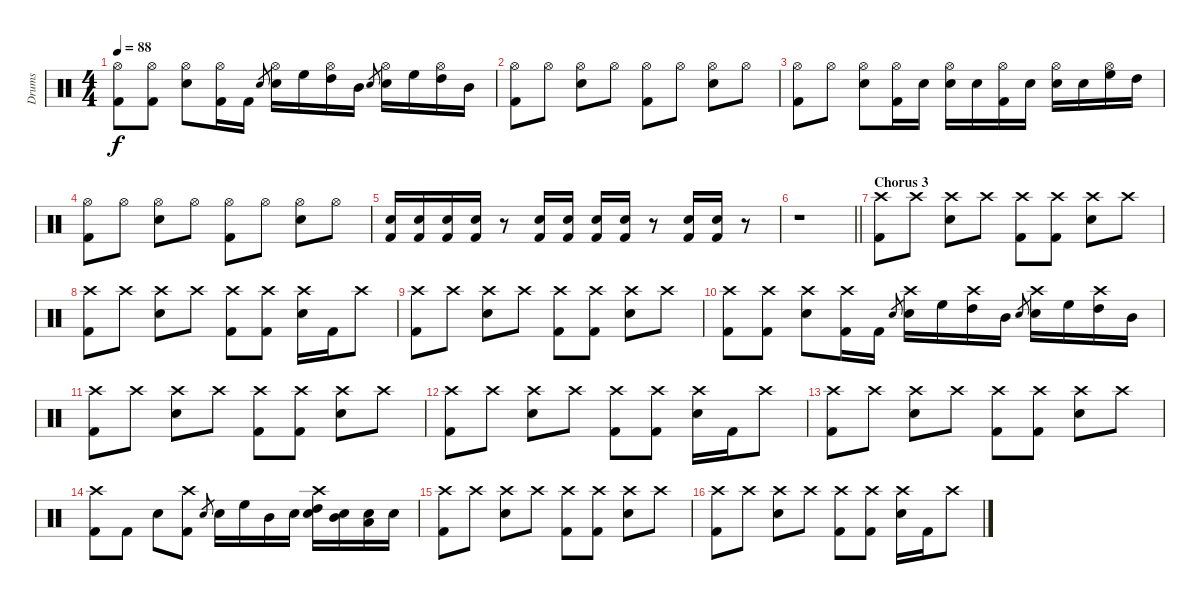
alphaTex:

\track ("Drums" "Drums") {instrument percussion}
\staff {score}
\articulation defaults
\ts (4 4)
\tempo 88
\clef neutral
\ks c
("Hi-Hat (open)" "Kick (hit) 2").8{dy f} ("Hi-Hat (open)" "Kick (hit) 2").8 ("Hi-Hat (open)" "Electric Snare (hit)").8 ("Hi-Hat (open)" "Kick (hit) 2").16 "Kick (hit) 2".16 "Electric Snare (hit)".8{gr} ("Hi-Hat (open)" "Electric Snare (hit)").16 "High Floor Tom (hit)".16 ("Hi-Hat (open)" "High Tom (hit)").16 "Mid Tom (hit)".16 "Electric Snare (hit)".8{gr} ("Hi-Hat (open)" "Electric Snare (hit)").16 "High Floor Tom (hit)".16 ("Hi-Hat (open)" "High Tom (hit)").16 "Mid Tom (hit)".16 |
("Hi-Hat (open)" "Kick (hit) 2").8 "Hi-Hat (open)".8 ("Hi-Hat (open)" "Electric Snare (hit)").8 "Hi-Hat (open)".8 ("Hi-Hat (open)" "Kick (hit) 2").8 "Hi-Hat (open)".8 ("Hi-Hat (open)" "Electric Snare (hit)").8 "Hi-Hat (open)".8 |
("Hi-Hat (open)" "Kick (hit) 2").8 "Hi-Hat (open)".8 ("Hi-Hat (open)" "Electric Snare (hit)").8 ("Hi-Hat (open)" "Kick (hit) 2").16 "Electric Snare (hit)".16 ("Hi-Hat (open)" "Electric Snare (hit)").16 "Electric Snare (hit)".16 ("Hi-Hat (open)" "Kick (hit) 2").16 "Electric Snare (hit)".16 ("Hi-Hat (open)" "Electric Snare (hit)").16 "Electric Snare (hit)".16 ("Hi-Hat (open)" "High Floor Tom (hit)").16 "High Tom (hit)".16 |
("Hi-Hat (open)" "Kick (hit) 2").8 "Hi-Hat (open)".8 ("Hi-Hat (open)" "Electric Snare (hit)").8 "Hi-Hat (open)".8 ("Hi-Hat (open)" "Kick (hit) 2").8 "Hi-Hat (open)".8 ("Hi-Hat (open)" "Electric Snare (hit)").8 "Hi-Hat (open)".8 |
("Electric Snare (hit)" "Kick (hit) 2").16 ("Electric Snare (hit)" "Kick (hit) 2").16 ("Electric Snare (hit)" "Kick (hit) 2").16 ("Electric Snare (hit)" "Kick (hit) 2").16 r.8 ("Electric Snare (hit)" "Kick (hit) 2").16 ("Electric Snare (hit)" "Kick (hit) 2").16 ("Electric Snare (hit)" "Kick (hit) 2").16 ("Electric Snare (hit)" "Kick (hit) 2").16 r.8 ("Electric Snare (hit)" "Kick (hit) 2").16 ("Electric Snare (hit)" "Kick (hit) 2").16 r.8 |
\barLineRight lightlight
r.1 |
\section ("" "Chorus 3")
("Crash high (hit)" "Kick (hit) 2").8 "Crash high (hit)".8 ("Crash high (hit)" "Electric Snare (hit)").8 "Crash high (hit)".8 ("Crash high (hit)" "Kick (hit) 2").8 ("Crash high (hit)" "Kick (hit) 2").8 ("Crash high (hit)" "Electric Snare (hit)").8 "Crash high (hit)".8 |
("Crash high (hit)" "Kick (hit) 2").8 "Crash high (hit)".8 ("Crash high (hit)" "Electric Snare (hit)").8 "Crash high (hit)".8 ("Crash high (hit)" "Kick (hit) 2").8 ("Crash high (hit)" "Kick (hit) 2").8 ("Crash high (hit)" "Electric Snare (hit)").16 "Kick (hit) 2".16 "Crash high (hit)".8 |
("Crash high (hit)" "Kick (hit) 2").8 "Crash high (hit)".8 ("Crash high (hit)" "Electric Snare (hit)").8 "Crash high (hit)".8 ("Crash high (hit)" "Kick (hit) 2").8 ("Crash high (hit)" "Kick (hit) 2").8 ("Crash high (hit)" "Electric Snare (hit)").8 "Crash high (hit)".8 |
("Crash high (hit)" "Kick (hit) 2").8 ("Crash high (hit)" "Kick (hit) 2").8 ("Crash high (hit)" "Electric Snare (hit)").8 ("Crash high (hit)" "Kick (hit) 2").16 "Kick (hit) 2".16 "Electric Snare (hit)".8{gr} ("Crash high (hit)" "Electric Snare (hit)").16 "High Floor Tom (hit)".16 ("Crash high (hit)" "High Tom (hit)").16 "Mid Tom (hit)".16 "Electric Snare (hit)".8{gr} ("Crash high (hit)" "Electric Snare (hit)").16 "High Floor Tom (hit)".16 ("Crash high (hit)" "High Tom (hit)").16 "Mid Tom (hit)".16 |
("Crash high (hit)" "Kick (hit) 2").8 "Crash high (hit)".8 ("Crash high (hit)" "Electric Snare (hit)").8 "Crash high (hit)".8 ("Crash high (hit)" "Kick (hit) 2").8 ("Crash high (hit)" "Kick (hit) 2").8 ("Crash high (hit)" "Electric Snare (hit)").8 "Crash high (hit)".8 |
("Crash high (hit)" "Kick (hit) 2").8 "Crash high (hit)".8 ("Crash high (hit)" "Electric Snare (hit)").8 "Crash high (hit)".8 ("Crash high (hit)" "Kick (hit) 2").8 ("Crash high (hit)" "Kick (hit) 2").8 ("Crash high (hit)" "Electric Snare (hit)").16 "Kick (hit) 2".16 "Crash high (hit)".8 |
("Crash high (hit)" "Kick (hit) 2").8 "Crash high (hit)".8 ("Crash high (hit)" "Electric Snare (hit)").8 "Crash high (hit)".8 ("Crash high (hit)" "Kick (hit) 2").8 ("Crash high (hit)" "Kick (hit) 2").8 ("Crash high (hit)" "Electric Snare (hit)").8 "Crash high (hit)".8 |
("Crash high (hit)" "Kick (hit) 2").8 "Kick (hit) 2".8 "Electric Snare (hit)".8 ("Crash high (hit)" "Kick (hit) 2").8 "Electric Snare (hit)".8{gr} "Electric Snare (hit)".16 "High Floor Tom (hit)".16 "Mid Tom (hit)".16 "Electric Snare (hit)".16 ("Crash high (hit)" "High Tom (hit)" "Electric Snare (hit)").16 ("Mid Tom (hit)" "Electric Snare (hit)").16 ("Low Tom (hit)" "Electric Snare (hit)").16 "Electric Snare (hit)".16 |
("Crash high (hit)" "Kick (hit) 2").8 "Crash high (hit)".8 ("Crash high (hit)" "Electric Snare (hit)").8 "Crash high (hit)".8 ("Crash high (hit)" "Kick (hit) 2").8 ("Crash high (hit)" "Kick (hit) 2").8 ("Crash high (hit)" "Electric Snare (hit)").8 "Crash high (hit)".8 |
("Crash high (hit)" "Kick (hit) 2").8 "Crash high (hit)".8 ("Crash high (hit)" "Electric Snare (hit)").8 "Crash high (hit)".8 ("Crash high (hit)" "Kick (hit) 2").8 ("Crash high (hit)" "Kick (hit) 2").8 ("Crash high (hit)" "Electric Snare (hit)").16 "Kick (hit) 2".16 "Crash high (hit)".8
